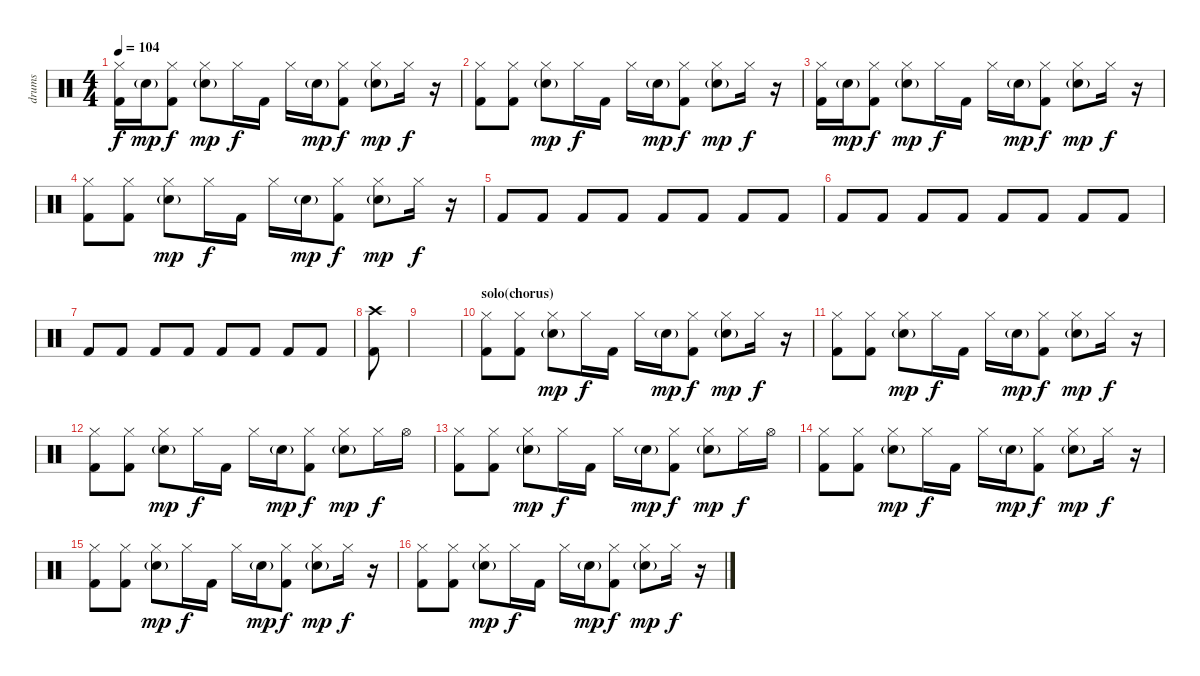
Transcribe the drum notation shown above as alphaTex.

\track ("drums" "drums") {instrument percussion}
\staff {score}
\articulation defaults
\ts (4 4)
\tempo 104
\clef neutral
\ks c
("Hi-Hat (closed)" "Kick (hit) 2").16{dy f} "Electric Snare (hit)"{g}.16{dy mp} ("Hi-Hat (closed)" "Kick (hit) 2").8{dy f} ("Hi-Hat (closed)" "Electric Snare (hit)"{g}).8{dy mp} "Hi-Hat (closed)".16{dy f} "Kick (hit) 2".16 "Hi-Hat (closed)".16 "Electric Snare (hit)"{g}.16{dy mp} ("Hi-Hat (closed)" "Kick (hit) 2").8{dy f} ("Hi-Hat (closed)" "Electric Snare (hit)"{g}).8{dy mp} "Hi-Hat (closed)".16{dy f} r.16 |
("Hi-Hat (closed)" "Kick (hit) 2").8 ("Hi-Hat (closed)" "Kick (hit) 2").8 ("Hi-Hat (closed)" "Electric Snare (hit)"{g}).8{dy mp} "Hi-Hat (closed)".16{dy f} "Kick (hit) 2".16 "Hi-Hat (closed)".16 "Electric Snare (hit)"{g}.16{dy mp} ("Hi-Hat (closed)" "Kick (hit) 2").8{dy f} ("Hi-Hat (closed)" "Electric Snare (hit)"{g}).8{dy mp} "Hi-Hat (closed)".16{dy f} r.16 |
("Hi-Hat (closed)" "Kick (hit) 2").16 "Electric Snare (hit)"{g}.16{dy mp} ("Hi-Hat (closed)" "Kick (hit) 2").8{dy f} ("Hi-Hat (closed)" "Electric Snare (hit)"{g}).8{dy mp} "Hi-Hat (closed)".16{dy f} "Kick (hit) 2".16 "Hi-Hat (closed)".16 "Electric Snare (hit)"{g}.16{dy mp} ("Hi-Hat (closed)" "Kick (hit) 2").8{dy f} ("Hi-Hat (closed)" "Electric Snare (hit)"{g}).8{dy mp} "Hi-Hat (closed)".16{dy f} r.16 |
("Hi-Hat (closed)" "Kick (hit) 2").8 ("Hi-Hat (closed)" "Kick (hit) 2").8 ("Hi-Hat (closed)" "Electric Snare (hit)"{g}).8{dy mp} "Hi-Hat (closed)".16{dy f} "Kick (hit) 2".16 "Hi-Hat (closed)".16 "Electric Snare (hit)"{g}.16{dy mp} ("Hi-Hat (closed)" "Kick (hit) 2").8{dy f} ("Hi-Hat (closed)" "Electric Snare (hit)"{g}).8{dy mp} "Hi-Hat (closed)".16{dy f} r.16 |
"Kick (hit) 2".8 "Kick (hit) 2".8 "Kick (hit) 2".8 "Kick (hit) 2".8 "Kick (hit) 2".8 "Kick (hit) 2".8 "Kick (hit) 2".8 "Kick (hit) 2".8 |
"Kick (hit) 2".8 "Kick (hit) 2".8 "Kick (hit) 2".8 "Kick (hit) 2".8 "Kick (hit) 2".8 "Kick (hit) 2".8 "Kick (hit) 2".8 "Kick (hit) 2".8 |
"Kick (hit) 2".8 "Kick (hit) 2".8 "Kick (hit) 2".8 "Kick (hit) 2".8 "Kick (hit) 2".8 "Kick (hit) 2".8 "Kick (hit) 2".8 "Kick (hit) 2".8 |
("Crash high (hit)" "Kick (hit) 2").8 |
|
\section ("" "solo(chorus)")
("Hi-Hat (closed)" "Kick (hit) 2").8 ("Hi-Hat (closed)" "Kick (hit) 2").8 ("Hi-Hat (closed)" "Electric Snare (hit)"{g}).8{dy mp} "Hi-Hat (closed)".16{dy f} "Kick (hit) 2".16 "Hi-Hat (closed)".16 "Electric Snare (hit)"{g}.16{dy mp} ("Hi-Hat (closed)" "Kick (hit) 2").8{dy f} ("Hi-Hat (closed)" "Electric Snare (hit)"{g}).8{dy mp} "Hi-Hat (closed)".16{dy f} r.16 |
("Hi-Hat (closed)" "Kick (hit) 2").8 ("Hi-Hat (closed)" "Kick (hit) 2").8 ("Hi-Hat (closed)" "Electric Snare (hit)"{g}).8{dy mp} "Hi-Hat (closed)".16{dy f} "Kick (hit) 2".16 "Hi-Hat (closed)".16 "Electric Snare (hit)"{g}.16{dy mp} ("Hi-Hat (closed)" "Kick (hit) 2").8{dy f} ("Hi-Hat (closed)" "Electric Snare (hit)"{g}).8{dy mp} "Hi-Hat (closed)".16{dy f} r.16 |
("Hi-Hat (closed)" "Kick (hit) 2").8 ("Hi-Hat (closed)" "Kick (hit) 2").8 ("Hi-Hat (closed)" "Electric Snare (hit)"{g}).8{dy mp} "Hi-Hat (closed)".16{dy f} "Kick (hit) 2".16 "Hi-Hat (closed)".16 "Electric Snare (hit)"{g}.16{dy mp} ("Hi-Hat (closed)" "Kick (hit) 2").8{dy f} ("Hi-Hat (closed)" "Electric Snare (hit)"{g}).8{dy mp} "Hi-Hat (closed)".16{dy f} "Hi-Hat (open)".16 |
("Hi-Hat (closed)" "Kick (hit) 2").8 ("Hi-Hat (closed)" "Kick (hit) 2").8 ("Hi-Hat (closed)" "Electric Snare (hit)"{g}).8{dy mp} "Hi-Hat (closed)".16{dy f} "Kick (hit) 2".16 "Hi-Hat (closed)".16 "Electric Snare (hit)"{g}.16{dy mp} ("Hi-Hat (closed)" "Kick (hit) 2").8{dy f} ("Hi-Hat (closed)" "Electric Snare (hit)"{g}).8{dy mp} "Hi-Hat (closed)".16{dy f} "Hi-Hat (open)".16 |
("Hi-Hat (closed)" "Kick (hit) 2").8 ("Hi-Hat (closed)" "Kick (hit) 2").8 ("Hi-Hat (closed)" "Electric Snare (hit)"{g}).8{dy mp} "Hi-Hat (closed)".16{dy f} "Kick (hit) 2".16 "Hi-Hat (closed)".16 "Electric Snare (hit)"{g}.16{dy mp} ("Hi-Hat (closed)" "Kick (hit) 2").8{dy f} ("Hi-Hat (closed)" "Electric Snare (hit)"{g}).8{dy mp} "Hi-Hat (closed)".16{dy f} r.16 |
("Hi-Hat (closed)" "Kick (hit) 2").8 ("Hi-Hat (closed)" "Kick (hit) 2").8 ("Hi-Hat (closed)" "Electric Snare (hit)"{g}).8{dy mp} "Hi-Hat (closed)".16{dy f} "Kick (hit) 2".16 "Hi-Hat (closed)".16 "Electric Snare (hit)"{g}.16{dy mp} ("Hi-Hat (closed)" "Kick (hit) 2").8{dy f} ("Hi-Hat (closed)" "Electric Snare (hit)"{g}).8{dy mp} "Hi-Hat (closed)".16{dy f} r.16 |
("Hi-Hat (closed)" "Kick (hit) 2").8 ("Hi-Hat (closed)" "Kick (hit) 2").8 ("Hi-Hat (closed)" "Electric Snare (hit)"{g}).8{dy mp} "Hi-Hat (closed)".16{dy f} "Kick (hit) 2".16 "Hi-Hat (closed)".16 "Electric Snare (hit)"{g}.16{dy mp} ("Hi-Hat (closed)" "Kick (hit) 2").8{dy f} ("Hi-Hat (closed)" "Electric Snare (hit)"{g}).8{dy mp} "Hi-Hat (closed)".16{dy f} r.16
